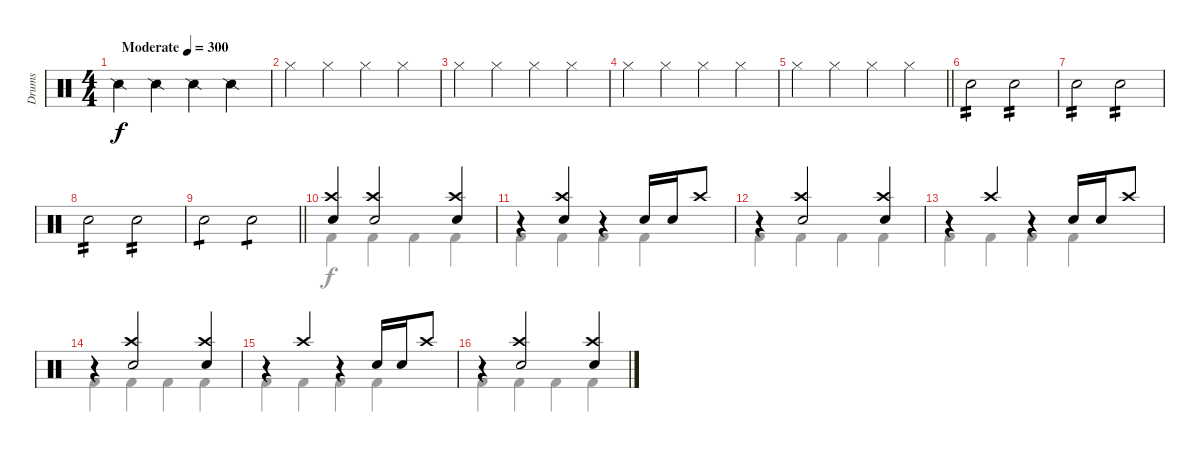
\track ("Drums" "Drums") {instrument percussion}
\staff {score}
\articulation defaults
\voice
\ts (4 4)
\tempo (300 "Moderate")
\clef neutral
\ks c "Snare (side stick) 2".4{dy f} "Snare (side stick) 2".4 "Snare (side stick) 2".4 "Snare (side stick) 2".4
|
"Hi-Hat (closed)".4 "Hi-Hat (closed)".4 "Hi-Hat (closed)".4 "Hi-Hat (closed)".4 |
"Hi-Hat (closed)".4 "Hi-Hat (closed)".4 "Hi-Hat (closed)".4 "Hi-Hat (closed)".4 |
"Hi-Hat (closed)".4 "Hi-Hat (closed)".4 "Hi-Hat (closed)".4 "Hi-Hat (closed)".4 |
\barLineRight lightlight "Hi-Hat (closed)".4 "Hi-Hat (closed)".4 "Hi-Hat (closed)".4 "Hi-Hat (closed)".4
|
"Snare (hit) 2".2{tp 2} "Snare (hit) 2".2{tp 2} |
"Snare (hit) 2".2{tp 2} "Snare (hit) 2".2{tp 2} |
"Snare (hit) 2".2{tp 2} "Snare (hit) 2".2{tp 2} |
\barLineRight lightlight "Snare (hit) 2".2{tp 1} "Snare (hit) 2".2{tp 1}
|
("Crash high (hit)" "Snare (hit) 2").4 ("Crash high (hit)" "Snare (hit) 2").2 ("Crash high (hit)" "Snare (hit) 2").4 |
r.4 ("Crash high (hit)" "Snare (hit) 2").4 r.4 "Snare (hit) 2".16 "Snare (hit) 2".16 "Crash high (hit)".8 |
r.4 ("Crash high (hit)" "Snare (hit) 2").2 ("Crash high (hit)" "Snare (hit) 2").4 |
r.4 "Crash high (hit)".4 r.4 "Snare (hit) 2".16 "Snare (hit) 2".16 "Crash high (hit)".8 |
r.4 ("Crash high (hit)" "Snare (hit) 2").2 ("Crash high (hit)" "Snare (hit) 2").4 |
r.4 "Crash high (hit)".4 r.4 "Snare (hit) 2".16 "Snare (hit) 2".16 "Crash high (hit)".8 |
r.4 ("Crash high (hit)" "Snare (hit) 2").2 ("Crash high (hit)" "Snare (hit) 2").4
\voice
\clef neutral
\ottava regular
\simile none
\ks c
|
|
|
|
\barLineRight lightlight
|
|
|
|
\barLineRight lightlight
|
"Kick (hit) 2".4 "Kick (hit) 2".4 "Kick (hit) 2".4 "Kick (hit) 2".4 |
"Kick (hit) 2".4 "Kick (hit) 2".4 "Kick (hit) 2".4 "Kick (hit) 2".4 |
"Kick (hit) 2".4 "Kick (hit) 2".4 "Kick (hit) 2".4 "Kick (hit) 2".4 |
"Kick (hit) 2".4 "Kick (hit) 2".4 "Kick (hit) 2".4 "Kick (hit) 2".4 |
"Kick (hit) 2".4 "Kick (hit) 2".4 "Kick (hit) 2".4 "Kick (hit) 2".4 |
"Kick (hit) 2".4 "Kick (hit) 2".4 "Kick (hit) 2".4 "Kick (hit) 2".4 |
"Kick (hit) 2".4 "Kick (hit) 2".4 "Kick (hit) 2".4 "Kick (hit) 2".4
